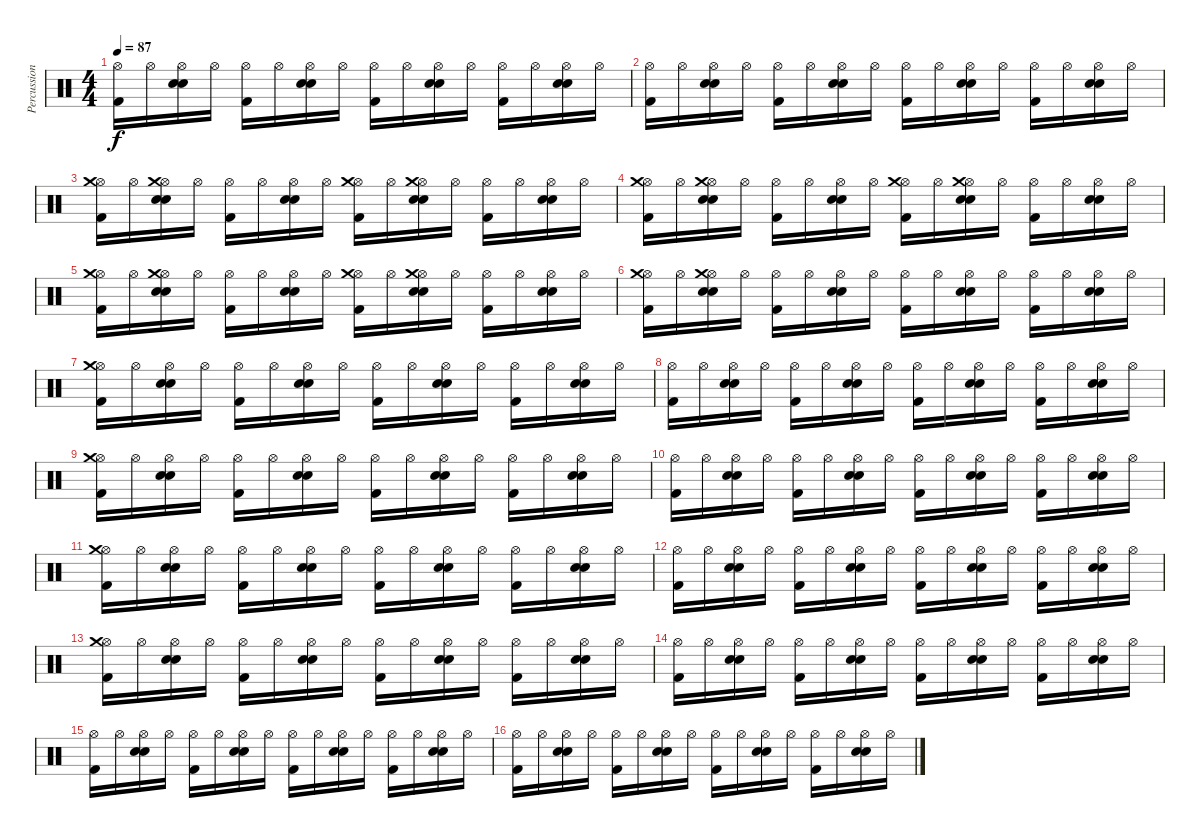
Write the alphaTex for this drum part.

\track ("Percussion" "Percussion") {instrument percussion}
\staff {score}
\articulation defaults
\ts (4 4)
\tempo 87
\clef neutral
\ks c
("Hi-Hat (open)" "Kick (hit) 2").16{dy f} "Hi-Hat (open)".16 ("Hi-Hat (open)" "Snare (hit) 2" "Electric Snare (hit)").16 "Hi-Hat (open)".16 ("Hi-Hat (open)" "Kick (hit) 2").16 "Hi-Hat (open)".16 ("Hi-Hat (open)" "Snare (hit) 2" "Electric Snare (hit)").16 "Hi-Hat (open)".16 ("Hi-Hat (open)" "Kick (hit) 2").16 "Hi-Hat (open)".16 ("Hi-Hat (open)" "Snare (hit) 2" "Electric Snare (hit)").16 "Hi-Hat (open)".16 ("Hi-Hat (open)" "Kick (hit) 2").16 "Hi-Hat (open)".16 ("Hi-Hat (open)" "Snare (hit) 2" "Electric Snare (hit)").16 "Hi-Hat (open)".16 |
("Hi-Hat (open)" "Kick (hit) 2").16 "Hi-Hat (open)".16 ("Hi-Hat (open)" "Snare (hit) 2" "Electric Snare (hit)").16 "Hi-Hat (open)".16 ("Hi-Hat (open)" "Kick (hit) 2").16 "Hi-Hat (open)".16 ("Hi-Hat (open)" "Snare (hit) 2" "Electric Snare (hit)").16 "Hi-Hat (open)".16 ("Hi-Hat (open)" "Kick (hit) 2").16 "Hi-Hat (open)".16 ("Hi-Hat (open)" "Snare (hit) 2" "Electric Snare (hit)").16 "Hi-Hat (open)".16 ("Hi-Hat (open)" "Kick (hit) 2").16 "Hi-Hat (open)".16 ("Hi-Hat (open)" "Snare (hit) 2" "Electric Snare (hit)").16 "Hi-Hat (open)".16 |
("Hi-Hat (open)" "Crash medium (hit)" "Kick (hit) 2").16 "Hi-Hat (open)".16 ("Hi-Hat (open)" "Crash medium (hit)" "Snare (hit) 2" "Electric Snare (hit)").16 "Hi-Hat (open)".16 ("Hi-Hat (open)" "Kick (hit) 2").16 "Hi-Hat (open)".16 ("Hi-Hat (open)" "Snare (hit) 2" "Electric Snare (hit)").16 "Hi-Hat (open)".16 ("Hi-Hat (open)" "Crash medium (hit)" "Kick (hit) 2").16 "Hi-Hat (open)".16 ("Hi-Hat (open)" "Crash medium (hit)" "Snare (hit) 2" "Electric Snare (hit)").16 "Hi-Hat (open)".16 ("Hi-Hat (open)" "Kick (hit) 2").16 "Hi-Hat (open)".16 ("Hi-Hat (open)" "Snare (hit) 2" "Electric Snare (hit)").16 "Hi-Hat (open)".16 |
("Hi-Hat (open)" "Crash medium (hit)" "Kick (hit) 2").16 "Hi-Hat (open)".16 ("Hi-Hat (open)" "Crash medium (hit)" "Snare (hit) 2" "Electric Snare (hit)").16 "Hi-Hat (open)".16 ("Hi-Hat (open)" "Kick (hit) 2").16 "Hi-Hat (open)".16 ("Hi-Hat (open)" "Snare (hit) 2" "Electric Snare (hit)").16 "Hi-Hat (open)".16 ("Hi-Hat (open)" "Crash medium (hit)" "Kick (hit) 2").16 "Hi-Hat (open)".16 ("Hi-Hat (open)" "Crash medium (hit)" "Snare (hit) 2" "Electric Snare (hit)").16 "Hi-Hat (open)".16 ("Hi-Hat (open)" "Kick (hit) 2").16 "Hi-Hat (open)".16 ("Hi-Hat (open)" "Snare (hit) 2" "Electric Snare (hit)").16 "Hi-Hat (open)".16 |
("Hi-Hat (open)" "Crash medium (hit)" "Kick (hit) 2").16 "Hi-Hat (open)".16 ("Hi-Hat (open)" "Crash medium (hit)" "Snare (hit) 2" "Electric Snare (hit)").16 "Hi-Hat (open)".16 ("Hi-Hat (open)" "Kick (hit) 2").16 "Hi-Hat (open)".16 ("Hi-Hat (open)" "Snare (hit) 2" "Electric Snare (hit)").16 "Hi-Hat (open)".16 ("Hi-Hat (open)" "Crash medium (hit)" "Kick (hit) 2").16 "Hi-Hat (open)".16 ("Hi-Hat (open)" "Crash medium (hit)" "Snare (hit) 2" "Electric Snare (hit)").16 "Hi-Hat (open)".16 ("Hi-Hat (open)" "Kick (hit) 2").16 "Hi-Hat (open)".16 ("Hi-Hat (open)" "Snare (hit) 2" "Electric Snare (hit)").16 "Hi-Hat (open)".16 |
("Hi-Hat (open)" "Crash medium (hit)" "Kick (hit) 2").16 "Hi-Hat (open)".16 ("Hi-Hat (open)" "Crash medium (hit)" "Snare (hit) 2" "Electric Snare (hit)").16 "Hi-Hat (open)".16 ("Hi-Hat (open)" "Kick (hit) 2").16 "Hi-Hat (open)".16 ("Hi-Hat (open)" "Snare (hit) 2" "Electric Snare (hit)").16 "Hi-Hat (open)".16 ("Hi-Hat (open)" "Kick (hit) 2").16 "Hi-Hat (open)".16 ("Hi-Hat (open)" "Snare (hit) 2" "Electric Snare (hit)").16 "Hi-Hat (open)".16 ("Hi-Hat (open)" "Kick (hit) 2").16 "Hi-Hat (open)".16 ("Hi-Hat (open)" "Snare (hit) 2" "Electric Snare (hit)").16 "Hi-Hat (open)".16 |
("Hi-Hat (open)" "Crash medium (hit)" "Kick (hit) 2").16 "Hi-Hat (open)".16 ("Hi-Hat (open)" "Snare (hit) 2" "Electric Snare (hit)").16 "Hi-Hat (open)".16 ("Hi-Hat (open)" "Kick (hit) 2").16 "Hi-Hat (open)".16 ("Hi-Hat (open)" "Snare (hit) 2" "Electric Snare (hit)").16 "Hi-Hat (open)".16 ("Hi-Hat (open)" "Kick (hit) 2").16 "Hi-Hat (open)".16 ("Hi-Hat (open)" "Snare (hit) 2" "Electric Snare (hit)").16 "Hi-Hat (open)".16 ("Hi-Hat (open)" "Kick (hit) 2").16 "Hi-Hat (open)".16 ("Hi-Hat (open)" "Snare (hit) 2" "Electric Snare (hit)").16 "Hi-Hat (open)".16 |
("Hi-Hat (open)" "Kick (hit) 2").16 "Hi-Hat (open)".16 ("Hi-Hat (open)" "Snare (hit) 2" "Electric Snare (hit)").16 "Hi-Hat (open)".16 ("Hi-Hat (open)" "Kick (hit) 2").16 "Hi-Hat (open)".16 ("Hi-Hat (open)" "Snare (hit) 2" "Electric Snare (hit)").16 "Hi-Hat (open)".16 ("Hi-Hat (open)" "Kick (hit) 2").16 "Hi-Hat (open)".16 ("Hi-Hat (open)" "Snare (hit) 2" "Electric Snare (hit)").16 "Hi-Hat (open)".16 ("Hi-Hat (open)" "Kick (hit) 2").16 "Hi-Hat (open)".16 ("Hi-Hat (open)" "Snare (hit) 2" "Electric Snare (hit)").16 "Hi-Hat (open)".16 |
("Hi-Hat (open)" "Crash medium (hit)" "Kick (hit) 2").16 "Hi-Hat (open)".16 ("Hi-Hat (open)" "Snare (hit) 2" "Electric Snare (hit)").16 "Hi-Hat (open)".16 ("Hi-Hat (open)" "Kick (hit) 2").16 "Hi-Hat (open)".16 ("Hi-Hat (open)" "Snare (hit) 2" "Electric Snare (hit)").16 "Hi-Hat (open)".16 ("Hi-Hat (open)" "Kick (hit) 2").16 "Hi-Hat (open)".16 ("Hi-Hat (open)" "Snare (hit) 2" "Electric Snare (hit)").16 "Hi-Hat (open)".16 ("Hi-Hat (open)" "Kick (hit) 2").16 "Hi-Hat (open)".16 ("Hi-Hat (open)" "Snare (hit) 2" "Electric Snare (hit)").16 "Hi-Hat (open)".16 |
("Hi-Hat (open)" "Kick (hit) 2").16 "Hi-Hat (open)".16 ("Hi-Hat (open)" "Snare (hit) 2" "Electric Snare (hit)").16 "Hi-Hat (open)".16 ("Hi-Hat (open)" "Kick (hit) 2").16 "Hi-Hat (open)".16 ("Hi-Hat (open)" "Snare (hit) 2" "Electric Snare (hit)").16 "Hi-Hat (open)".16 ("Hi-Hat (open)" "Kick (hit) 2").16 "Hi-Hat (open)".16 ("Hi-Hat (open)" "Snare (hit) 2" "Electric Snare (hit)").16 "Hi-Hat (open)".16 ("Hi-Hat (open)" "Kick (hit) 2").16 "Hi-Hat (open)".16 ("Hi-Hat (open)" "Snare (hit) 2" "Electric Snare (hit)").16 "Hi-Hat (open)".16 |
("Hi-Hat (open)" "Crash medium (hit)" "Kick (hit) 2").16 "Hi-Hat (open)".16 ("Hi-Hat (open)" "Snare (hit) 2" "Electric Snare (hit)").16 "Hi-Hat (open)".16 ("Hi-Hat (open)" "Kick (hit) 2").16 "Hi-Hat (open)".16 ("Hi-Hat (open)" "Snare (hit) 2" "Electric Snare (hit)").16 "Hi-Hat (open)".16 ("Hi-Hat (open)" "Kick (hit) 2").16 "Hi-Hat (open)".16 ("Hi-Hat (open)" "Snare (hit) 2" "Electric Snare (hit)").16 "Hi-Hat (open)".16 ("Hi-Hat (open)" "Kick (hit) 2").16 "Hi-Hat (open)".16 ("Hi-Hat (open)" "Snare (hit) 2" "Electric Snare (hit)").16 "Hi-Hat (open)".16 |
("Hi-Hat (open)" "Kick (hit) 2").16 "Hi-Hat (open)".16 ("Hi-Hat (open)" "Snare (hit) 2" "Electric Snare (hit)").16 "Hi-Hat (open)".16 ("Hi-Hat (open)" "Kick (hit) 2").16 "Hi-Hat (open)".16 ("Hi-Hat (open)" "Snare (hit) 2" "Electric Snare (hit)").16 "Hi-Hat (open)".16 ("Hi-Hat (open)" "Kick (hit) 2").16 "Hi-Hat (open)".16 ("Hi-Hat (open)" "Snare (hit) 2" "Electric Snare (hit)").16 "Hi-Hat (open)".16 ("Hi-Hat (open)" "Kick (hit) 2").16 "Hi-Hat (open)".16 ("Hi-Hat (open)" "Snare (hit) 2" "Electric Snare (hit)").16 "Hi-Hat (open)".16 |
("Hi-Hat (open)" "Crash medium (hit)" "Kick (hit) 2").16 "Hi-Hat (open)".16 ("Hi-Hat (open)" "Snare (hit) 2" "Electric Snare (hit)").16 "Hi-Hat (open)".16 ("Hi-Hat (open)" "Kick (hit) 2").16 "Hi-Hat (open)".16 ("Hi-Hat (open)" "Snare (hit) 2" "Electric Snare (hit)").16 "Hi-Hat (open)".16 ("Hi-Hat (open)" "Kick (hit) 2").16 "Hi-Hat (open)".16 ("Hi-Hat (open)" "Snare (hit) 2" "Electric Snare (hit)").16 "Hi-Hat (open)".16 ("Hi-Hat (open)" "Kick (hit) 2").16 "Hi-Hat (open)".16 ("Hi-Hat (open)" "Snare (hit) 2" "Electric Snare (hit)").16 "Hi-Hat (open)".16 |
("Hi-Hat (open)" "Kick (hit) 2").16 "Hi-Hat (open)".16 ("Hi-Hat (open)" "Snare (hit) 2" "Electric Snare (hit)").16 "Hi-Hat (open)".16 ("Hi-Hat (open)" "Kick (hit) 2").16 "Hi-Hat (open)".16 ("Hi-Hat (open)" "Snare (hit) 2" "Electric Snare (hit)").16 "Hi-Hat (open)".16 ("Hi-Hat (open)" "Kick (hit) 2").16 "Hi-Hat (open)".16 ("Hi-Hat (open)" "Snare (hit) 2" "Electric Snare (hit)").16 "Hi-Hat (open)".16 ("Hi-Hat (open)" "Kick (hit) 2").16 "Hi-Hat (open)".16 ("Hi-Hat (open)" "Snare (hit) 2" "Electric Snare (hit)").16 "Hi-Hat (open)".16 |
("Hi-Hat (open)" "Kick (hit) 2").16 "Hi-Hat (open)".16 ("Hi-Hat (open)" "Snare (hit) 2" "Electric Snare (hit)").16 "Hi-Hat (open)".16 ("Hi-Hat (open)" "Kick (hit) 2").16 "Hi-Hat (open)".16 ("Hi-Hat (open)" "Snare (hit) 2" "Electric Snare (hit)").16 "Hi-Hat (open)".16 ("Hi-Hat (open)" "Kick (hit) 2").16 "Hi-Hat (open)".16 ("Hi-Hat (open)" "Snare (hit) 2" "Electric Snare (hit)").16 "Hi-Hat (open)".16 ("Hi-Hat (open)" "Kick (hit) 2").16 "Hi-Hat (open)".16 ("Hi-Hat (open)" "Snare (hit) 2" "Electric Snare (hit)").16 "Hi-Hat (open)".16 |
("Hi-Hat (open)" "Kick (hit) 2").16 "Hi-Hat (open)".16 ("Hi-Hat (open)" "Snare (hit) 2" "Electric Snare (hit)").16 "Hi-Hat (open)".16 ("Hi-Hat (open)" "Kick (hit) 2").16 "Hi-Hat (open)".16 ("Hi-Hat (open)" "Snare (hit) 2" "Electric Snare (hit)").16 "Hi-Hat (open)".16 ("Hi-Hat (open)" "Kick (hit) 2").16 "Hi-Hat (open)".16 ("Hi-Hat (open)" "Snare (hit) 2" "Electric Snare (hit)").16 "Hi-Hat (open)".16 ("Hi-Hat (open)" "Kick (hit) 2").16 "Hi-Hat (open)".16 ("Hi-Hat (open)" "Snare (hit) 2" "Electric Snare (hit)").16 "Hi-Hat (open)".16
